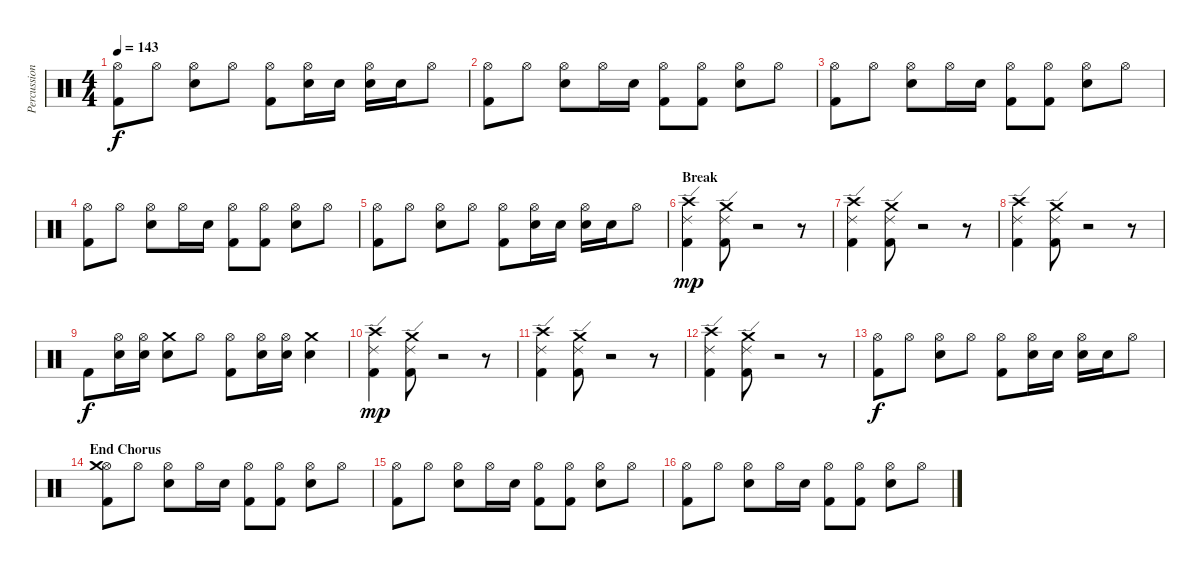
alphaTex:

\track ("Percussion" "Percussion") {instrument percussion}
\staff {score}
\articulation defaults
\ts (4 4)
\tempo 143
\clef neutral
\ks c
("Hi-Hat (open)" "Kick (hit) 2").8{dy f} "Hi-Hat (open)".8 ("Hi-Hat (open)" "Electric Snare (hit)").8 "Hi-Hat (open)".8 ("Hi-Hat (open)" "Kick (hit) 2").8 ("Hi-Hat (open)" "Electric Snare (hit)").16 "Electric Snare (hit)".16 ("Hi-Hat (open)" "Electric Snare (hit)").16 "Electric Snare (hit)".16 "Hi-Hat (open)".8 |
("Hi-Hat (open)" "Kick (hit) 2").8 "Hi-Hat (open)".8 ("Hi-Hat (open)" "Electric Snare (hit)").8 "Hi-Hat (open)".16 "Electric Snare (hit)".16 ("Hi-Hat (open)" "Kick (hit) 2").8 ("Hi-Hat (open)" "Kick (hit) 2").8 ("Hi-Hat (open)" "Electric Snare (hit)").8 "Hi-Hat (open)".8 |
("Hi-Hat (open)" "Kick (hit) 2").8 "Hi-Hat (open)".8 ("Hi-Hat (open)" "Electric Snare (hit)").8 "Hi-Hat (open)".16 "Electric Snare (hit)".16 ("Hi-Hat (open)" "Kick (hit) 2").8 ("Hi-Hat (open)" "Kick (hit) 2").8 ("Hi-Hat (open)" "Electric Snare (hit)").8 "Hi-Hat (open)".8 |
("Hi-Hat (open)" "Kick (hit) 2").8 "Hi-Hat (open)".8 ("Hi-Hat (open)" "Electric Snare (hit)").8 "Hi-Hat (open)".16 "Electric Snare (hit)".16 ("Hi-Hat (open)" "Kick (hit) 2").8 ("Hi-Hat (open)" "Kick (hit) 2").8 ("Hi-Hat (open)" "Electric Snare (hit)").8 "Hi-Hat (open)".8 |
("Hi-Hat (open)" "Kick (hit) 2").8 "Hi-Hat (open)".8 ("Hi-Hat (open)" "Electric Snare (hit)").8 "Hi-Hat (open)".8 ("Hi-Hat (open)" "Kick (hit) 2").8 ("Hi-Hat (open)" "Electric Snare (hit)").16 "Electric Snare (hit)".16 ("Hi-Hat (open)" "Electric Snare (hit)").16 "Electric Snare (hit)".16 "Hi-Hat (open)".8 |
\section ("" "Break")
("Ride (edge) 2" "Crash high (hit)" "Kick (hit) 2").4{dy mp} ("Ride (edge) 2" "Crash medium (hit)" "Kick (hit) 2").8 r.2 r.8 |
("Ride (edge) 2" "Crash high (hit)" "Kick (hit) 2").4 ("Ride (edge) 2" "Crash medium (hit)" "Kick (hit) 2").8 r.2 r.8 |
("Ride (edge) 2" "Crash high (hit)" "Kick (hit) 2").4 ("Ride (edge) 2" "Crash medium (hit)" "Kick (hit) 2").8 r.2 r.8 |
"Kick (hit) 2".8{dy f} ("Hi-Hat (open)" "Electric Snare (hit)").16 ("Hi-Hat (open)" "Electric Snare (hit)").16 ("Crash medium (hit)" "Electric Snare (hit)").8 "Hi-Hat (open)".8 ("Hi-Hat (open)" "Kick (hit) 2").8 ("Hi-Hat (open)" "Electric Snare (hit)").16 ("Hi-Hat (open)" "Electric Snare (hit)").16 ("Crash medium (hit)" "Electric Snare (hit)").4 |
("Ride (edge) 2" "Crash high (hit)" "Kick (hit) 2").4{dy mp} ("Ride (edge) 2" "Crash medium (hit)" "Kick (hit) 2").8 r.2 r.8 |
("Ride (edge) 2" "Crash high (hit)" "Kick (hit) 2").4 ("Ride (edge) 2" "Crash medium (hit)" "Kick (hit) 2").8 r.2 r.8 |
("Ride (edge) 2" "Crash high (hit)" "Kick (hit) 2").4 ("Ride (edge) 2" "Crash medium (hit)" "Kick (hit) 2").8 r.2 r.8 |
("Hi-Hat (open)" "Kick (hit) 2").8{dy f} "Hi-Hat (open)".8 ("Hi-Hat (open)" "Electric Snare (hit)").8 "Hi-Hat (open)".8 ("Hi-Hat (open)" "Kick (hit) 2").8 ("Hi-Hat (open)" "Electric Snare (hit)").16 "Electric Snare (hit)".16 ("Hi-Hat (open)" "Electric Snare (hit)").16 "Electric Snare (hit)".16 "Hi-Hat (open)".8 |
\section ("" "End Chorus")
("Hi-Hat (open)" "Crash medium (hit)" "Kick (hit) 2").8 "Hi-Hat (open)".8 ("Hi-Hat (open)" "Electric Snare (hit)").8 "Hi-Hat (open)".16 "Electric Snare (hit)".16 ("Hi-Hat (open)" "Kick (hit) 2").8 ("Hi-Hat (open)" "Kick (hit) 2").8 ("Hi-Hat (open)" "Electric Snare (hit)").8 "Hi-Hat (open)".8 |
("Hi-Hat (open)" "Kick (hit) 2").8 "Hi-Hat (open)".8 ("Hi-Hat (open)" "Electric Snare (hit)").8 "Hi-Hat (open)".16 "Electric Snare (hit)".16 ("Hi-Hat (open)" "Kick (hit) 2").8 ("Hi-Hat (open)" "Kick (hit) 2").8 ("Hi-Hat (open)" "Electric Snare (hit)").8 "Hi-Hat (open)".8 |
("Hi-Hat (open)" "Kick (hit) 2").8 "Hi-Hat (open)".8 ("Hi-Hat (open)" "Electric Snare (hit)").8 "Hi-Hat (open)".16 "Electric Snare (hit)".16 ("Hi-Hat (open)" "Kick (hit) 2").8 ("Hi-Hat (open)" "Kick (hit) 2").8 ("Hi-Hat (open)" "Electric Snare (hit)").8 "Hi-Hat (open)".8
